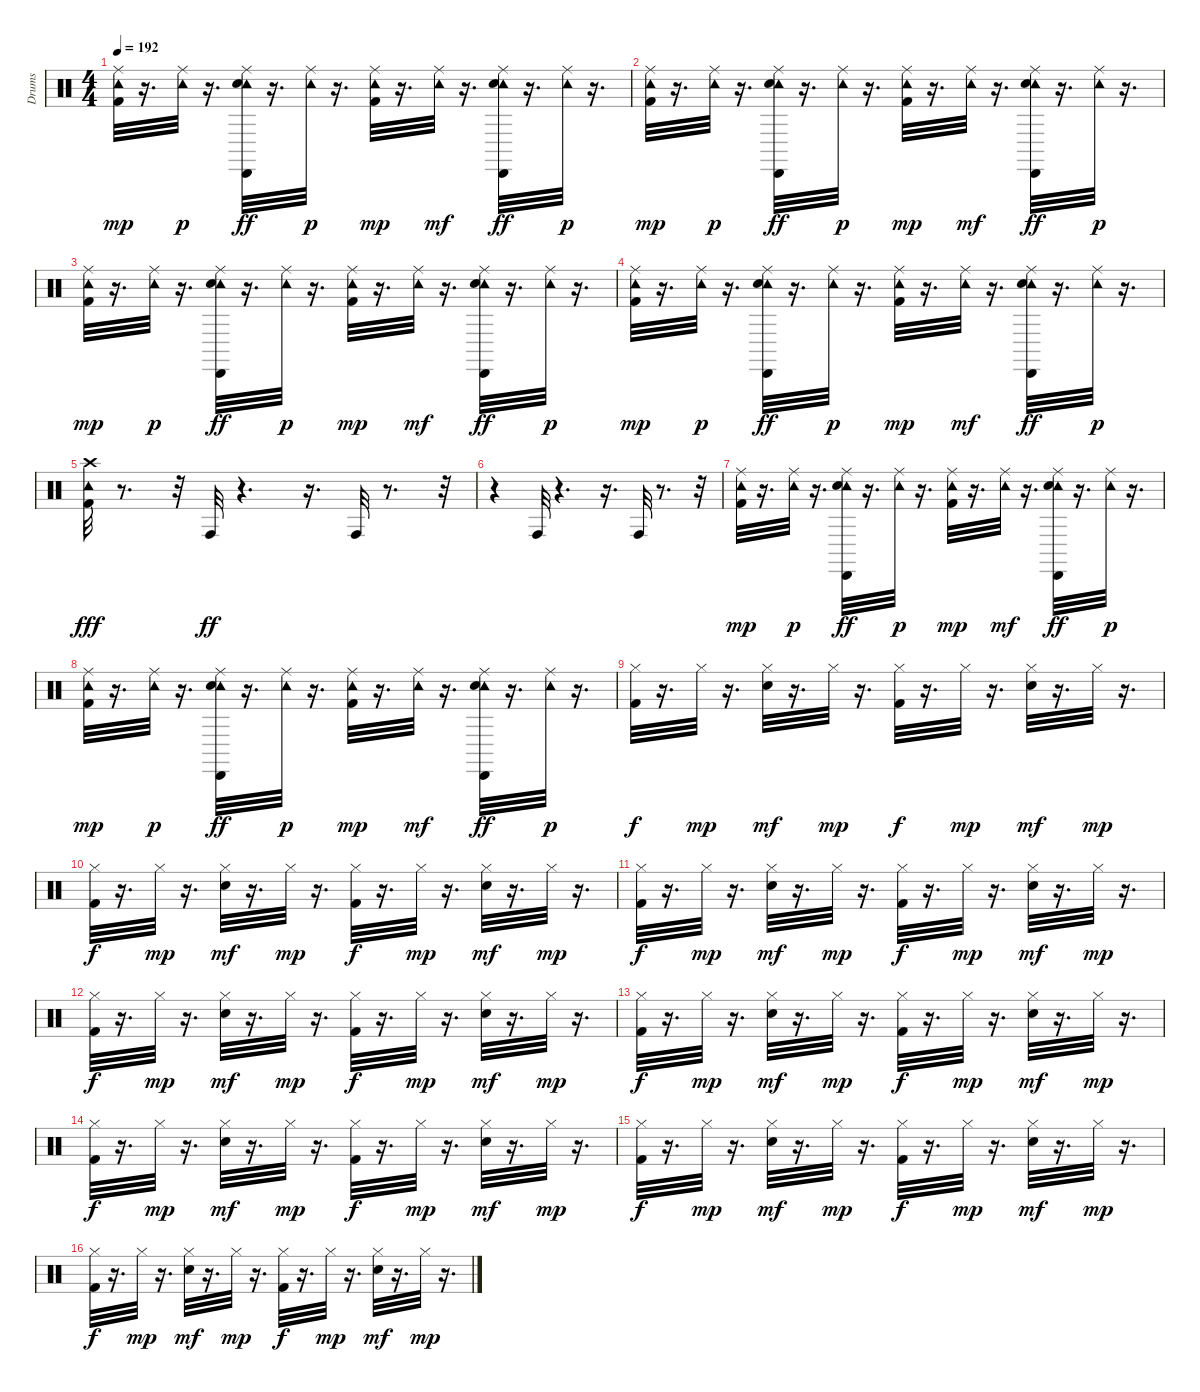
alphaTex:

\track ("Drums" "Drums") {instrument percussion}
\staff {score}
\articulation defaults
\ts (4 4)
\tempo 192
\clef neutral
\ks c
("Kick (hit) 2" "Tambourine (hit)" "Ride (middle)").32{dy mp} r.16{d} ("Ride (middle)" "Tambourine (hit)").32{dy p} r.16{d} ("Tambourine (hit)" "Cabasa (hit)" "Ride (middle)" "Snare (hit) 2").32{dy ff} r.16{d} ("Ride (middle)" "Tambourine (hit)").32{dy p} r.16{d} ("Kick (hit) 2" "Tambourine (hit)" "Ride (middle)").32{dy mp} r.16{d} ("Tambourine (hit)" "Ride (middle)").32{dy mf} r.16{d} ("Tambourine (hit)" "Cabasa (hit)" "Ride (middle)" "Snare (hit) 2").32{dy ff} r.16{d} ("Ride (middle)" "Tambourine (hit)").32{dy p} r.16{d} |
("Kick (hit) 2" "Tambourine (hit)" "Ride (middle)").32{dy mp} r.16{d} ("Ride (middle)" "Tambourine (hit)").32{dy p} r.16{d} ("Tambourine (hit)" "Cabasa (hit)" "Ride (middle)" "Snare (hit) 2").32{dy ff} r.16{d} ("Ride (middle)" "Tambourine (hit)").32{dy p} r.16{d} ("Kick (hit) 2" "Tambourine (hit)" "Ride (middle)").32{dy mp} r.16{d} ("Tambourine (hit)" "Ride (middle)").32{dy mf} r.16{d} ("Tambourine (hit)" "Cabasa (hit)" "Ride (middle)" "Snare (hit) 2").32{dy ff} r.16{d} ("Ride (middle)" "Tambourine (hit)").32{dy p} r.16{d} |
("Kick (hit) 2" "Tambourine (hit)" "Ride (middle)").32{dy mp} r.16{d} ("Ride (middle)" "Tambourine (hit)").32{dy p} r.16{d} ("Tambourine (hit)" "Cabasa (hit)" "Ride (middle)" "Snare (hit) 2").32{dy ff} r.16{d} ("Ride (middle)" "Tambourine (hit)").32{dy p} r.16{d} ("Kick (hit) 2" "Tambourine (hit)" "Ride (middle)").32{dy mp} r.16{d} ("Tambourine (hit)" "Ride (middle)").32{dy mf} r.16{d} ("Tambourine (hit)" "Cabasa (hit)" "Ride (middle)" "Snare (hit) 2").32{dy ff} r.16{d} ("Ride (middle)" "Tambourine (hit)").32{dy p} r.16{d} |
("Kick (hit) 2" "Tambourine (hit)" "Ride (middle)").32{dy mp} r.16{d} ("Ride (middle)" "Tambourine (hit)").32{dy p} r.16{d} ("Tambourine (hit)" "Cabasa (hit)" "Ride (middle)" "Snare (hit) 2").32{dy ff} r.16{d} ("Ride (middle)" "Tambourine (hit)").32{dy p} r.16{d} ("Kick (hit) 2" "Tambourine (hit)" "Ride (middle)").32{dy mp} r.16{d} ("Tambourine (hit)" "Ride (middle)").32{dy mf} r.16{d} ("Tambourine (hit)" "Cabasa (hit)" "Ride (middle)" "Snare (hit) 2").32{dy ff} r.16{d} ("Ride (middle)" "Tambourine (hit)").32{dy p} r.16{d} |
("Tambourine (hit)" "Kick (hit) 2" "Crash high (hit)").32{dy fff} r.8{d} r.32 "Conga high (hit)".32{dy ff} r.4{d} r.16{d} "Conga high (hit)".32 r.8{d} r.32 |
r.4 "Conga high (hit)".32 r.4{d} r.16{d} "Conga high (hit)".32 r.8{d} r.32 |
("Kick (hit) 2" "Tambourine (hit)" "Ride (middle)").32{dy mp} r.16{d} ("Ride (middle)" "Tambourine (hit)").32{dy p} r.16{d} ("Tambourine (hit)" "Cabasa (hit)" "Ride (middle)" "Snare (hit) 2").32{dy ff} r.16{d} ("Ride (middle)" "Tambourine (hit)").32{dy p} r.16{d} ("Kick (hit) 2" "Tambourine (hit)" "Ride (middle)").32{dy mp} r.16{d} ("Tambourine (hit)" "Ride (middle)").32{dy mf} r.16{d} ("Tambourine (hit)" "Cabasa (hit)" "Ride (middle)" "Snare (hit) 2").32{dy ff} r.16{d} ("Ride (middle)" "Tambourine (hit)").32{dy p} r.16{d} |
("Kick (hit) 2" "Tambourine (hit)" "Ride (middle)").32{dy mp} r.16{d} ("Ride (middle)" "Tambourine (hit)").32{dy p} r.16{d} ("Tambourine (hit)" "Cabasa (hit)" "Ride (middle)" "Snare (hit) 2").32{dy ff} r.16{d} ("Ride (middle)" "Tambourine (hit)").32{dy p} r.16{d} ("Kick (hit) 2" "Tambourine (hit)" "Ride (middle)").32{dy mp} r.16{d} ("Tambourine (hit)" "Ride (middle)").32{dy mf} r.16{d} ("Tambourine (hit)" "Cabasa (hit)" "Ride (middle)" "Snare (hit) 2").32{dy ff} r.16{d} ("Ride (middle)" "Tambourine (hit)").32{dy p} r.16{d} |
("Kick (hit) 2" "Hi-Hat (closed)").32{dy f} r.16{d} "Hi-Hat (closed)".32{dy mp} r.16{d} ("Snare (hit) 2" "Hi-Hat (closed)").32{dy mf} r.16{d} "Hi-Hat (closed)".32{dy mp} r.16{d} ("Kick (hit) 2" "Hi-Hat (closed)").32{dy f} r.16{d} "Hi-Hat (closed)".32{dy mp} r.16{d} ("Snare (hit) 2" "Hi-Hat (closed)").32{dy mf} r.16{d} "Hi-Hat (closed)".32{dy mp} r.16{d} |
("Kick (hit) 2" "Hi-Hat (closed)").32{dy f} r.16{d} "Hi-Hat (closed)".32{dy mp} r.16{d} ("Snare (hit) 2" "Hi-Hat (closed)").32{dy mf} r.16{d} "Hi-Hat (closed)".32{dy mp} r.16{d} ("Kick (hit) 2" "Hi-Hat (closed)").32{dy f} r.16{d} "Hi-Hat (closed)".32{dy mp} r.16{d} ("Snare (hit) 2" "Hi-Hat (closed)").32{dy mf} r.16{d} "Hi-Hat (closed)".32{dy mp} r.16{d} |
("Kick (hit) 2" "Hi-Hat (closed)").32{dy f} r.16{d} "Hi-Hat (closed)".32{dy mp} r.16{d} ("Snare (hit) 2" "Hi-Hat (closed)").32{dy mf} r.16{d} "Hi-Hat (closed)".32{dy mp} r.16{d} ("Kick (hit) 2" "Hi-Hat (closed)").32{dy f} r.16{d} "Hi-Hat (closed)".32{dy mp} r.16{d} ("Snare (hit) 2" "Hi-Hat (closed)").32{dy mf} r.16{d} "Hi-Hat (closed)".32{dy mp} r.16{d} |
("Kick (hit) 2" "Hi-Hat (closed)").32{dy f} r.16{d} "Hi-Hat (closed)".32{dy mp} r.16{d} ("Snare (hit) 2" "Hi-Hat (closed)").32{dy mf} r.16{d} "Hi-Hat (closed)".32{dy mp} r.16{d} ("Kick (hit) 2" "Hi-Hat (closed)").32{dy f} r.16{d} "Hi-Hat (closed)".32{dy mp} r.16{d} ("Snare (hit) 2" "Hi-Hat (closed)").32{dy mf} r.16{d} "Hi-Hat (closed)".32{dy mp} r.16{d} |
("Kick (hit) 2" "Hi-Hat (closed)").32{dy f} r.16{d} "Hi-Hat (closed)".32{dy mp} r.16{d} ("Snare (hit) 2" "Hi-Hat (closed)").32{dy mf} r.16{d} "Hi-Hat (closed)".32{dy mp} r.16{d} ("Kick (hit) 2" "Hi-Hat (closed)").32{dy f} r.16{d} "Hi-Hat (closed)".32{dy mp} r.16{d} ("Snare (hit) 2" "Hi-Hat (closed)").32{dy mf} r.16{d} "Hi-Hat (closed)".32{dy mp} r.16{d} |
("Kick (hit) 2" "Hi-Hat (closed)").32{dy f} r.16{d} "Hi-Hat (closed)".32{dy mp} r.16{d} ("Snare (hit) 2" "Hi-Hat (closed)").32{dy mf} r.16{d} "Hi-Hat (closed)".32{dy mp} r.16{d} ("Kick (hit) 2" "Hi-Hat (closed)").32{dy f} r.16{d} "Hi-Hat (closed)".32{dy mp} r.16{d} ("Snare (hit) 2" "Hi-Hat (closed)").32{dy mf} r.16{d} "Hi-Hat (closed)".32{dy mp} r.16{d} |
("Kick (hit) 2" "Hi-Hat (closed)").32{dy f} r.16{d} "Hi-Hat (closed)".32{dy mp} r.16{d} ("Snare (hit) 2" "Hi-Hat (closed)").32{dy mf} r.16{d} "Hi-Hat (closed)".32{dy mp} r.16{d} ("Kick (hit) 2" "Hi-Hat (closed)").32{dy f} r.16{d} "Hi-Hat (closed)".32{dy mp} r.16{d} ("Snare (hit) 2" "Hi-Hat (closed)").32{dy mf} r.16{d} "Hi-Hat (closed)".32{dy mp} r.16{d} |
("Kick (hit) 2" "Hi-Hat (closed)").32{dy f} r.16{d} "Hi-Hat (closed)".32{dy mp} r.16{d} ("Snare (hit) 2" "Hi-Hat (closed)").32{dy mf} r.16{d} "Hi-Hat (closed)".32{dy mp} r.16{d} ("Kick (hit) 2" "Hi-Hat (closed)").32{dy f} r.16{d} "Hi-Hat (closed)".32{dy mp} r.16{d} ("Snare (hit) 2" "Hi-Hat (closed)").32{dy mf} r.16{d} "Hi-Hat (closed)".32{dy mp} r.16{d}
